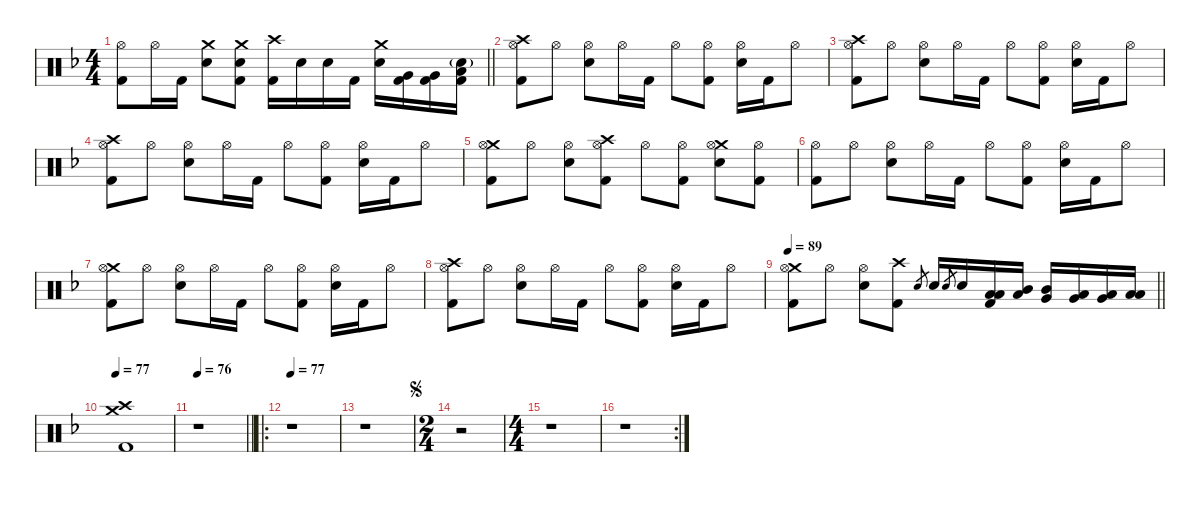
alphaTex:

\defaultSystemsLayout 4
\hideDynamics
\bracketExtendMode nobrackets
\singleTrackTrackNamePolicy hidden
\multiTrackTrackNamePolicy hidden
\otherSystemsTrackNameOrientation horizontal
\track ("Martin Lopez - Drums" "drm.") {defaultSystemsLayout 4 instrument percussion}
\staff {score}
\articulation defaults
\ts (4 4)
\tempo (88 hide)
\tempo (89 0.00625 hide)
\clef neutral
\barLineRight lightlight
\ks dminor
("Hi-Hat (open)"{acc forcenatural} "Kick (hit) 2"{acc forcenatural}).8{dy f beam Down} "Hi-Hat (open)"{acc forcenatural}.16{beam Down} "Kick (hit) 2"{acc forcenatural}.16{beam Down} ("Crash medium (hit)"{acc forcenatural} "Snare (hit) 2"{acc forcenatural}).8{beam Down} ("Crash medium (hit)"{acc forcenatural} "Snare (hit) 2"{acc forcenatural} "Kick (hit) 2"{acc forcenatural}).8{beam Down} ("Crash high (hit)"{acc forcenatural} "Kick (hit) 2"{acc forcenatural}).16{beam Down} "Snare (hit) 2"{acc forcenatural}.16{beam Down} "Snare (hit) 2"{acc forcenatural}.16{beam Down} "Kick (hit) 2"{acc forcenatural}.16{beam Down} ("Crash medium (hit)"{acc forcenatural} "Snare (hit) 2"{acc forcenatural}).16{beam Down} ("Very Low Tom (hit)"{acc forcenatural} "Kick (hit) 2"{acc forcenatural}).16{beam Down} ("Very Low Tom (hit)"{acc forcenatural} "Kick (hit) 2"{acc forcenatural}).16{beam Down} ("Low Floor Tom (hit)"{acc forcenatural} "Snare (hit) 2"{g acc forcenatural} "Kick (hit) 2"{acc forcenatural}).16{beam Down} |
\tempo (88 0.0125 hide)
\tempo (89 0.99375 hide)
("Crash high (hit)"{acc forcenatural} "Hi-Hat (open)"{acc forcenatural} "Kick (hit) 2"{acc forcenatural}).8{beam Down} "Hi-Hat (open)"{acc forcenatural}.8{beam Down} ("Hi-Hat (open)"{acc forcenatural} "Snare (hit) 2"{acc forcenatural}).8{beam Down} "Hi-Hat (open)"{acc forcenatural}.16{beam Down} "Kick (hit) 2"{acc forcenatural}.16{beam Down} "Hi-Hat (open)"{acc forcenatural}.8{beam Down} ("Hi-Hat (open)"{acc forcenatural} "Kick (hit) 2"{acc forcenatural}).8{beam Down} ("Hi-Hat (open)"{acc forcenatural} "Snare (hit) 2"{acc forcenatural}).16{beam Down} "Kick (hit) 2"{acc forcenatural}.16{beam Down} "Hi-Hat (open)"{acc forcenatural}.8{beam Down} |
("Crash high (hit)"{acc forcenatural} "Hi-Hat (open)"{acc forcenatural} "Kick (hit) 2"{acc forcenatural}).8{beam Down} "Hi-Hat (open)"{acc forcenatural}.8{beam Down} ("Hi-Hat (open)"{acc forcenatural} "Snare (hit) 2"{acc forcenatural}).8{beam Down} "Hi-Hat (open)"{acc forcenatural}.16{beam Down} "Kick (hit) 2"{acc forcenatural}.16{beam Down} "Hi-Hat (open)"{acc forcenatural}.8{beam Down} ("Hi-Hat (open)"{acc forcenatural} "Kick (hit) 2"{acc forcenatural}).8{beam Down} ("Hi-Hat (open)"{acc forcenatural} "Snare (hit) 2"{acc forcenatural}).16{beam Down} "Kick (hit) 2"{acc forcenatural}.16{beam Down} "Hi-Hat (open)"{acc forcenatural}.8{beam Down} |
\tempo (88 hide)
("Crash high (hit)"{acc forcenatural} "Hi-Hat (open)"{acc forcenatural} "Kick (hit) 2"{acc forcenatural}).8{beam Down} "Hi-Hat (open)"{acc forcenatural}.8{beam Down} ("Hi-Hat (open)"{acc forcenatural} "Snare (hit) 2"{acc forcenatural}).8{beam Down} "Hi-Hat (open)"{acc forcenatural}.16{beam Down} "Kick (hit) 2"{acc forcenatural}.16{beam Down} "Hi-Hat (open)"{acc forcenatural}.8{beam Down} ("Hi-Hat (open)"{acc forcenatural} "Kick (hit) 2"{acc forcenatural}).8{beam Down} ("Hi-Hat (open)"{acc forcenatural} "Snare (hit) 2"{acc forcenatural}).16{beam Down} "Kick (hit) 2"{acc forcenatural}.16{beam Down} "Hi-Hat (open)"{acc forcenatural}.8{beam Down} |
\tempo (89 0.00625 hide)
("Crash medium (hit)"{acc forcenatural} "Hi-Hat (open)"{acc forcenatural} "Kick (hit) 2"{acc forcenatural}).8{beam Down} "Hi-Hat (open)"{acc forcenatural}.8{beam Down} ("Hi-Hat (open)"{acc forcenatural} "Snare (hit) 2"{acc forcenatural}).8{beam Down} ("Crash high (hit)"{acc forcenatural} "Hi-Hat (open)"{acc forcenatural} "Kick (hit) 2"{acc forcenatural}).8{beam Down} "Hi-Hat (open)"{acc forcenatural}.8{beam Down} ("Hi-Hat (open)"{acc forcenatural} "Kick (hit) 2"{acc forcenatural}).8{beam Down} ("Crash medium (hit)"{acc forcenatural} "Hi-Hat (open)"{acc forcenatural} "Snare (hit) 2"{acc forcenatural}).8{beam Down} ("Hi-Hat (open)"{acc forcenatural} "Kick (hit) 2"{acc forcenatural}).8{beam Down} |
\tempo (88 0.00625 hide)
("Hi-Hat (open)"{acc forcenatural} "Kick (hit) 2"{acc forcenatural}).8{beam Down} "Hi-Hat (open)"{acc forcenatural}.8{beam Down} ("Hi-Hat (open)"{acc forcenatural} "Snare (hit) 2"{acc forcenatural}).8{beam Down} "Hi-Hat (open)"{acc forcenatural}.16{beam Down} "Kick (hit) 2"{acc forcenatural}.16{beam Down} "Hi-Hat (open)"{acc forcenatural}.8{beam Down} ("Hi-Hat (open)"{acc forcenatural} "Kick (hit) 2"{acc forcenatural}).8{beam Down} ("Hi-Hat (open)"{acc forcenatural} "Snare (hit) 2"{acc forcenatural}).16{beam Down} "Kick (hit) 2"{acc forcenatural}.16{beam Down} "Hi-Hat (open)"{acc forcenatural}.8{beam Down} |
\tempo (89 0.00625 hide)
("Crash medium (hit)"{acc forcenatural} "Hi-Hat (open)"{acc forcenatural} "Kick (hit) 2"{acc forcenatural}).8{beam Down} "Hi-Hat (open)"{acc forcenatural}.8{beam Down} ("Hi-Hat (open)"{acc forcenatural} "Snare (hit) 2"{acc forcenatural}).8{beam Down} "Hi-Hat (open)"{acc forcenatural}.16{beam Down} "Kick (hit) 2"{acc forcenatural}.16{beam Down} "Hi-Hat (open)"{acc forcenatural}.8{beam Down} ("Hi-Hat (open)"{acc forcenatural} "Kick (hit) 2"{acc forcenatural}).8{beam Down} ("Hi-Hat (open)"{acc forcenatural} "Snare (hit) 2"{acc forcenatural}).16{beam Down} "Kick (hit) 2"{acc forcenatural}.16{beam Down} "Hi-Hat (open)"{acc forcenatural}.8{beam Down} |
\tempo (88 hide)
("Crash high (hit)"{acc forcenatural} "Hi-Hat (open)"{acc forcenatural} "Kick (hit) 2"{acc forcenatural}).8{beam Down} "Hi-Hat (open)"{acc forcenatural}.8{beam Down} ("Hi-Hat (open)"{acc forcenatural} "Snare (hit) 2"{acc forcenatural}).8{beam Down} "Hi-Hat (open)"{acc forcenatural}.16{beam Down} "Kick (hit) 2"{acc forcenatural}.16{beam Down} "Hi-Hat (open)"{acc forcenatural}.8{beam Down} ("Hi-Hat (open)"{acc forcenatural} "Kick (hit) 2"{acc forcenatural}).8{beam Down} ("Hi-Hat (open)"{acc forcenatural} "Snare (hit) 2"{acc forcenatural}).16{beam Down} "Kick (hit) 2"{acc forcenatural}.16{beam Down} "Hi-Hat (open)"{acc forcenatural}.8{beam Down} |
\tempo 89
\barLineRight lightlight
("Crash medium (hit)"{acc forcenatural} "Hi-Hat (open)"{acc forcenatural} "Kick (hit) 2"{acc forcenatural}).8{beam Down} "Hi-Hat (open)"{acc forcenatural}.8{beam Down} ("Hi-Hat (open)"{acc forcenatural} "Snare (hit) 2"{acc forcenatural}).8{beam Down} ("Crash high (hit)"{acc forcenatural} "Kick (hit) 2"{acc forcenatural}).8{beam Down} "Electric Snare (hit)"{acc forcenatural}.8{gr dy mp beam Up} "Snare (hit) 2"{acc forcenatural}.16{dy f beam Up} "Electric Snare (hit)"{acc forcenatural}.8{gr dy mp beam Up} "Snare (hit) 2"{acc forcenatural}.16{dy f beam Up} ("Low Tom (hit)"{acc forcenatural} "Low Tom (hit)"{acc forcenatural} "Kick (hit) 2"{acc forcenatural}).16{beam Up} ("Mid Tom (hit)"{acc forcenatural} "Low Tom (hit)"{acc forcenatural}).16{beam Up} ("Mid Tom (hit)"{acc forcenatural} "Very Low Tom (hit)"{acc forcenatural}).16{beam Up} ("Low Tom (hit)"{acc forcenatural} "Very Low Tom (hit)"{acc forcenatural}).16{beam Up} ("Very Low Tom (hit)"{acc forcenatural} "Low Floor Tom (hit)"{acc forcenatural}).16{beam Up} ("Low Floor Tom (hit)"{acc forcenatural} "Low Floor Tom (hit)"{acc forcenatural}).16{beam Up} |
\tempo 77
("Crash medium (hit)"{acc forcenatural} "Crash high (hit)"{acc forcenatural} "Kick (hit) 2"{acc forcenatural}).1{beam Down} |
\tempo 76
\barLineRight lightlight
r.1{beam Down} |
\ro
\tempo 77
r.1{beam Down} |
r.1{beam Down} |
\ts (2 4)
\beaming (8 2 2 2 2)
\jump segno
r.2{beam Down} |
\ts (4 4)
\beaming (8 2 2 2 2)
r.1{beam Down} |
\rc 2
r.1{beam Down}
